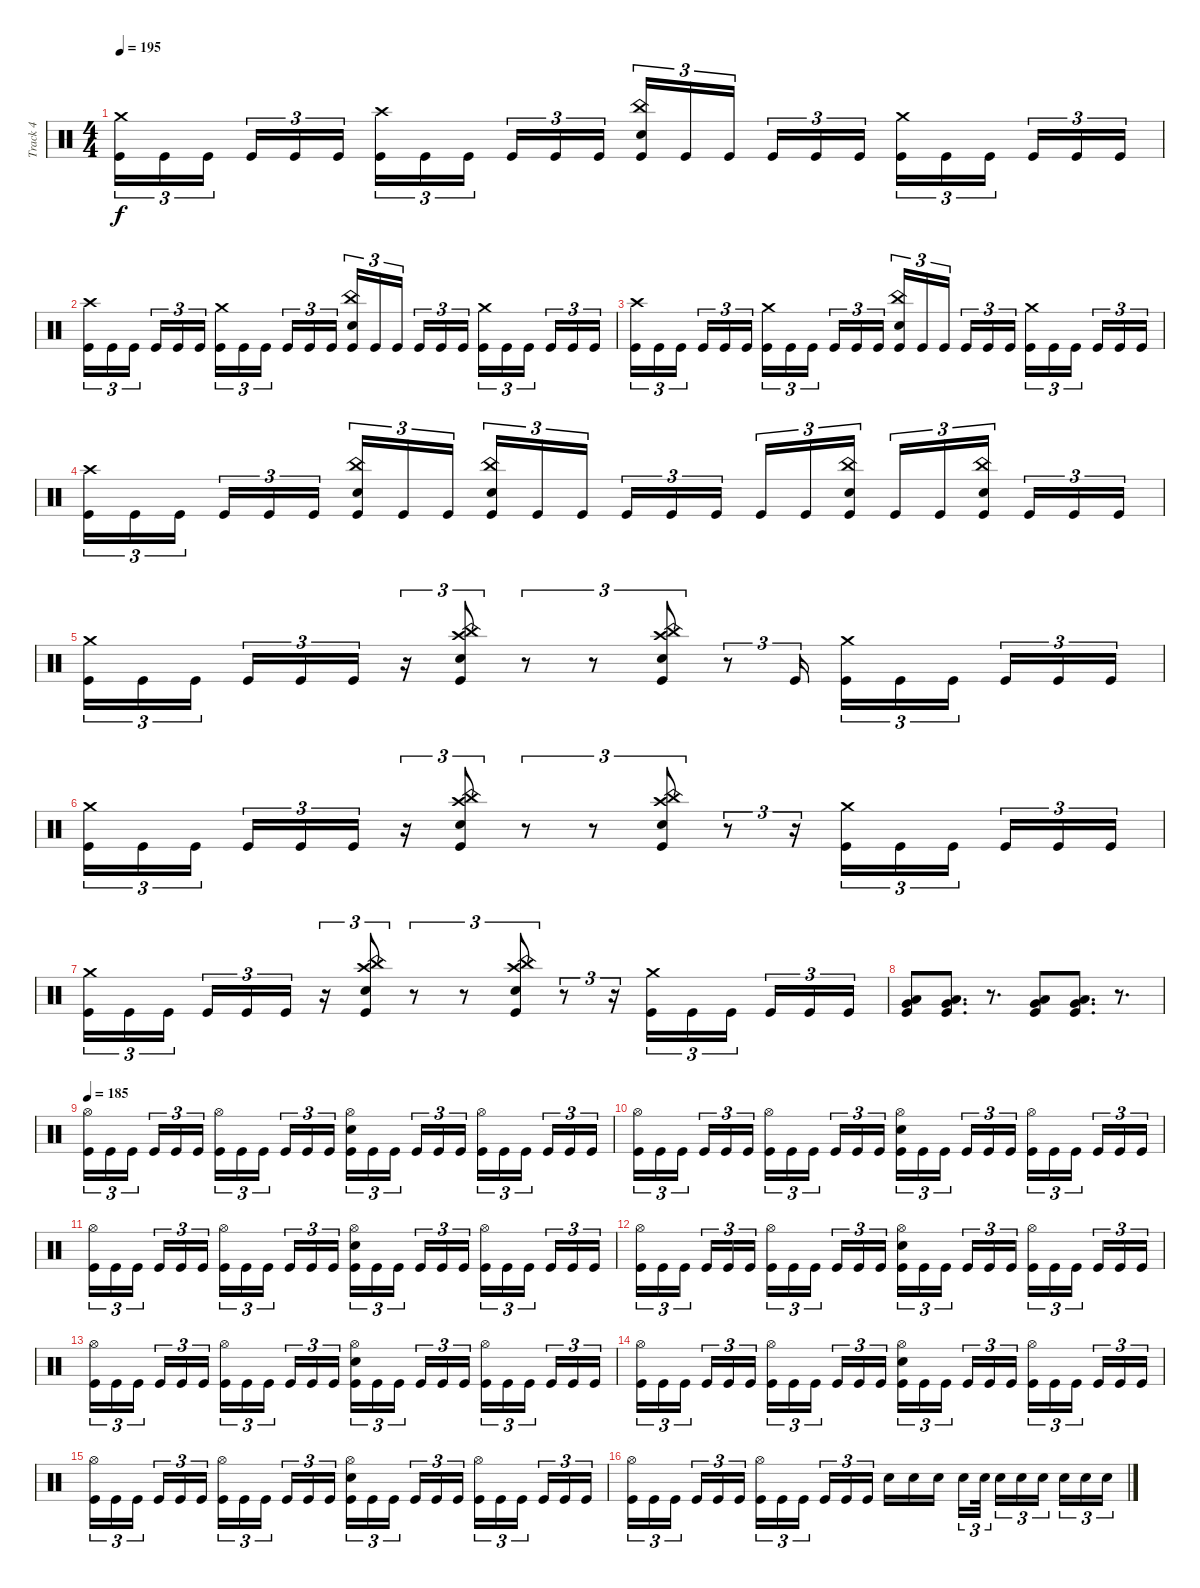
\track ("Track 4" "Track 4") {instrument percussion}
\staff {score}
\articulation defaults
\ts (4 4)
\tempo 195
\clef neutral
\ks c
("Crash medium (hit)" "Kick (hit)").16{tu (3 2) dy f} "Kick (hit)".16{tu (3 2)} "Kick (hit)".16{tu (3 2)} "Kick (hit)".16{tu (3 2)} "Kick (hit)".16{tu (3 2)} "Kick (hit)".16{tu (3 2)} ("Crash high (hit)" "Kick (hit)").16{tu (3 2)} "Kick (hit)".16{tu (3 2)} "Kick (hit)".16{tu (3 2)} "Kick (hit)".16{tu (3 2)} "Kick (hit)".16{tu (3 2)} "Kick (hit)".16{tu (3 2)} ("China (hit)" "Electric Snare (hit)" "Kick (hit)").16{tu (3 2)} "Kick (hit)".16{tu (3 2)} "Kick (hit)".16{tu (3 2)} "Kick (hit)".16{tu (3 2)} "Kick (hit)".16{tu (3 2)} "Kick (hit)".16{tu (3 2)} ("Crash medium (hit)" "Kick (hit)").16{tu (3 2)} "Kick (hit)".16{tu (3 2)} "Kick (hit)".16{tu (3 2)} "Kick (hit)".16{tu (3 2)} "Kick (hit)".16{tu (3 2)} "Kick (hit)".16{tu (3 2)} |
("Crash high (hit)" "Kick (hit)").16{tu (3 2)} "Kick (hit)".16{tu (3 2)} "Kick (hit)".16{tu (3 2)} "Kick (hit)".16{tu (3 2)} "Kick (hit)".16{tu (3 2)} "Kick (hit)".16{tu (3 2)} ("Crash medium (hit)" "Kick (hit)").16{tu (3 2)} "Kick (hit)".16{tu (3 2)} "Kick (hit)".16{tu (3 2)} "Kick (hit)".16{tu (3 2)} "Kick (hit)".16{tu (3 2)} "Kick (hit)".16{tu (3 2)} ("China (hit)" "Electric Snare (hit)" "Kick (hit)").16{tu (3 2)} "Kick (hit)".16{tu (3 2)} "Kick (hit)".16{tu (3 2)} "Kick (hit)".16{tu (3 2)} "Kick (hit)".16{tu (3 2)} "Kick (hit)".16{tu (3 2)} ("Crash medium (hit)" "Kick (hit)").16{tu (3 2)} "Kick (hit)".16{tu (3 2)} "Kick (hit)".16{tu (3 2)} "Kick (hit)".16{tu (3 2)} "Kick (hit)".16{tu (3 2)} "Kick (hit)".16{tu (3 2)} |
("Crash high (hit)" "Kick (hit)").16{tu (3 2)} "Kick (hit)".16{tu (3 2)} "Kick (hit)".16{tu (3 2)} "Kick (hit)".16{tu (3 2)} "Kick (hit)".16{tu (3 2)} "Kick (hit)".16{tu (3 2)} ("Crash medium (hit)" "Kick (hit)").16{tu (3 2)} "Kick (hit)".16{tu (3 2)} "Kick (hit)".16{tu (3 2)} "Kick (hit)".16{tu (3 2)} "Kick (hit)".16{tu (3 2)} "Kick (hit)".16{tu (3 2)} ("China (hit)" "Electric Snare (hit)" "Kick (hit)").16{tu (3 2)} "Kick (hit)".16{tu (3 2)} "Kick (hit)".16{tu (3 2)} "Kick (hit)".16{tu (3 2)} "Kick (hit)".16{tu (3 2)} "Kick (hit)".16{tu (3 2)} ("Crash medium (hit)" "Kick (hit)").16{tu (3 2)} "Kick (hit)".16{tu (3 2)} "Kick (hit)".16{tu (3 2)} "Kick (hit)".16{tu (3 2)} "Kick (hit)".16{tu (3 2)} "Kick (hit)".16{tu (3 2)} |
("Crash high (hit)" "Kick (hit)").16{tu (3 2)} "Kick (hit)".16{tu (3 2)} "Kick (hit)".16{tu (3 2)} "Kick (hit)".16{tu (3 2)} "Kick (hit)".16{tu (3 2)} "Kick (hit)".16{tu (3 2)} ("China (hit)" "Electric Snare (hit)" "Kick (hit)").16{tu (3 2)} "Kick (hit)".16{tu (3 2)} "Kick (hit)".16{tu (3 2)} ("China (hit)" "Electric Snare (hit)" "Kick (hit)").16{tu (3 2)} "Kick (hit)".16{tu (3 2)} "Kick (hit)".16{tu (3 2)} "Kick (hit)".16{tu (3 2)} "Kick (hit)".16{tu (3 2)} "Kick (hit)".16{tu (3 2)} "Kick (hit)".16{tu (3 2)} "Kick (hit)".16{tu (3 2)} ("China (hit)" "Electric Snare (hit)" "Kick (hit)").16{tu (3 2)} "Kick (hit)".16{tu (3 2)} "Kick (hit)".16{tu (3 2)} ("China (hit)" "Electric Snare (hit)" "Kick (hit)").16{tu (3 2)} "Kick (hit)".16{tu (3 2)} "Kick (hit)".16{tu (3 2)} "Kick (hit)".16{tu (3 2)} |
("Crash medium (hit)" "Kick (hit)").16{tu (3 2)} "Kick (hit)".16{tu (3 2)} "Kick (hit)".16{tu (3 2)} "Kick (hit)".16{tu (3 2)} "Kick (hit)".16{tu (3 2)} "Kick (hit)".16{tu (3 2)} r.16{tu (3 2)} ("Crash high (hit)" "China (hit)" "Electric Snare (hit)" "Kick (hit)").8{tu (3 2)} r.8{tu (3 2)} r.8{tu (3 2)} ("Crash high (hit)" "China (hit)" "Electric Snare (hit)" "Kick (hit)").8{tu (3 2)} r.8{tu (3 2)} "Kick (hit)".16{tu (3 2)} ("Crash medium (hit)" "Kick (hit)").16{tu (3 2)} "Kick (hit)".16{tu (3 2)} "Kick (hit)".16{tu (3 2)} "Kick (hit)".16{tu (3 2)} "Kick (hit)".16{tu (3 2)} "Kick (hit)".16{tu (3 2)} |
("Crash medium (hit)" "Kick (hit)").16{tu (3 2)} "Kick (hit)".16{tu (3 2)} "Kick (hit)".16{tu (3 2)} "Kick (hit)".16{tu (3 2)} "Kick (hit)".16{tu (3 2)} "Kick (hit)".16{tu (3 2)} r.16{tu (3 2)} ("Crash high (hit)" "China (hit)" "Electric Snare (hit)" "Kick (hit)").8{tu (3 2)} r.8{tu (3 2)} r.8{tu (3 2)} ("Crash high (hit)" "China (hit)" "Electric Snare (hit)" "Kick (hit)").8{tu (3 2)} r.8{tu (3 2)} r.16{tu (3 2)} ("Crash medium (hit)" "Kick (hit)").16{tu (3 2)} "Kick (hit)".16{tu (3 2)} "Kick (hit)".16{tu (3 2)} "Kick (hit)".16{tu (3 2)} "Kick (hit)".16{tu (3 2)} "Kick (hit)".16{tu (3 2)} |
("Crash medium (hit)" "Kick (hit)").16{tu (3 2)} "Kick (hit)".16{tu (3 2)} "Kick (hit)".16{tu (3 2)} "Kick (hit)".16{tu (3 2)} "Kick (hit)".16{tu (3 2)} "Kick (hit)".16{tu (3 2)} r.16{tu (3 2)} ("Crash high (hit)" "China (hit)" "Electric Snare (hit)" "Kick (hit)").8{tu (3 2)} r.8{tu (3 2)} r.8{tu (3 2)} ("Crash high (hit)" "China (hit)" "Electric Snare (hit)" "Kick (hit)").8{tu (3 2)} r.8{tu (3 2)} r.16{tu (3 2)} ("Crash medium (hit)" "Kick (hit)").16{tu (3 2)} "Kick (hit)".16{tu (3 2)} "Kick (hit)".16{tu (3 2)} "Kick (hit)".16{tu (3 2)} "Kick (hit)".16{tu (3 2)} "Kick (hit)".16{tu (3 2)} |
("Very Low Tom (hit)" "Low Floor Tom (hit)" "Kick (hit)").8 ("Very Low Tom (hit)" "Low Floor Tom (hit)" "Kick (hit)").8{d} r.8{d} ("Very Low Tom (hit)" "Low Floor Tom (hit)" "Kick (hit)").8 ("Very Low Tom (hit)" "Low Floor Tom (hit)" "Kick (hit)").8{d} r.8{d} |
\tempo 185
("Hi-Hat (open)" "Kick (hit)").16{tu (3 2)} "Kick (hit)".16{tu (3 2)} "Kick (hit)".16{tu (3 2)} "Kick (hit)".16{tu (3 2)} "Kick (hit)".16{tu (3 2)} "Kick (hit)".16{tu (3 2)} ("Hi-Hat (open)" "Kick (hit)").16{tu (3 2)} "Kick (hit)".16{tu (3 2)} "Kick (hit)".16{tu (3 2)} "Kick (hit)".16{tu (3 2)} "Kick (hit)".16{tu (3 2)} "Kick (hit)".16{tu (3 2)} ("Hi-Hat (open)" "Electric Snare (hit)" "Kick (hit)").16{tu (3 2)} "Kick (hit)".16{tu (3 2)} "Kick (hit)".16{tu (3 2)} "Kick (hit)".16{tu (3 2)} "Kick (hit)".16{tu (3 2)} "Kick (hit)".16{tu (3 2)} ("Hi-Hat (open)" "Kick (hit)").16{tu (3 2)} "Kick (hit)".16{tu (3 2)} "Kick (hit)".16{tu (3 2)} "Kick (hit)".16{tu (3 2)} "Kick (hit)".16{tu (3 2)} "Kick (hit)".16{tu (3 2)} |
("Hi-Hat (open)" "Kick (hit)").16{tu (3 2)} "Kick (hit)".16{tu (3 2)} "Kick (hit)".16{tu (3 2)} "Kick (hit)".16{tu (3 2)} "Kick (hit)".16{tu (3 2)} "Kick (hit)".16{tu (3 2)} ("Hi-Hat (open)" "Kick (hit)").16{tu (3 2)} "Kick (hit)".16{tu (3 2)} "Kick (hit)".16{tu (3 2)} "Kick (hit)".16{tu (3 2)} "Kick (hit)".16{tu (3 2)} "Kick (hit)".16{tu (3 2)} ("Hi-Hat (open)" "Electric Snare (hit)" "Kick (hit)").16{tu (3 2)} "Kick (hit)".16{tu (3 2)} "Kick (hit)".16{tu (3 2)} "Kick (hit)".16{tu (3 2)} "Kick (hit)".16{tu (3 2)} "Kick (hit)".16{tu (3 2)} ("Hi-Hat (open)" "Kick (hit)").16{tu (3 2)} "Kick (hit)".16{tu (3 2)} "Kick (hit)".16{tu (3 2)} "Kick (hit)".16{tu (3 2)} "Kick (hit)".16{tu (3 2)} "Kick (hit)".16{tu (3 2)} |
("Hi-Hat (open)" "Kick (hit)").16{tu (3 2)} "Kick (hit)".16{tu (3 2)} "Kick (hit)".16{tu (3 2)} "Kick (hit)".16{tu (3 2)} "Kick (hit)".16{tu (3 2)} "Kick (hit)".16{tu (3 2)} ("Hi-Hat (open)" "Kick (hit)").16{tu (3 2)} "Kick (hit)".16{tu (3 2)} "Kick (hit)".16{tu (3 2)} "Kick (hit)".16{tu (3 2)} "Kick (hit)".16{tu (3 2)} "Kick (hit)".16{tu (3 2)} ("Hi-Hat (open)" "Electric Snare (hit)" "Kick (hit)").16{tu (3 2)} "Kick (hit)".16{tu (3 2)} "Kick (hit)".16{tu (3 2)} "Kick (hit)".16{tu (3 2)} "Kick (hit)".16{tu (3 2)} "Kick (hit)".16{tu (3 2)} ("Hi-Hat (open)" "Kick (hit)").16{tu (3 2)} "Kick (hit)".16{tu (3 2)} "Kick (hit)".16{tu (3 2)} "Kick (hit)".16{tu (3 2)} "Kick (hit)".16{tu (3 2)} "Kick (hit)".16{tu (3 2)} |
("Hi-Hat (open)" "Kick (hit)").16{tu (3 2)} "Kick (hit)".16{tu (3 2)} "Kick (hit)".16{tu (3 2)} "Kick (hit)".16{tu (3 2)} "Kick (hit)".16{tu (3 2)} "Kick (hit)".16{tu (3 2)} ("Hi-Hat (open)" "Kick (hit)").16{tu (3 2)} "Kick (hit)".16{tu (3 2)} "Kick (hit)".16{tu (3 2)} "Kick (hit)".16{tu (3 2)} "Kick (hit)".16{tu (3 2)} "Kick (hit)".16{tu (3 2)} ("Hi-Hat (open)" "Electric Snare (hit)" "Kick (hit)").16{tu (3 2)} "Kick (hit)".16{tu (3 2)} "Kick (hit)".16{tu (3 2)} "Kick (hit)".16{tu (3 2)} "Kick (hit)".16{tu (3 2)} "Kick (hit)".16{tu (3 2)} ("Hi-Hat (open)" "Kick (hit)").16{tu (3 2)} "Kick (hit)".16{tu (3 2)} "Kick (hit)".16{tu (3 2)} "Kick (hit)".16{tu (3 2)} "Kick (hit)".16{tu (3 2)} "Kick (hit)".16{tu (3 2)} |
("Hi-Hat (open)" "Kick (hit)").16{tu (3 2)} "Kick (hit)".16{tu (3 2)} "Kick (hit)".16{tu (3 2)} "Kick (hit)".16{tu (3 2)} "Kick (hit)".16{tu (3 2)} "Kick (hit)".16{tu (3 2)} ("Hi-Hat (open)" "Kick (hit)").16{tu (3 2)} "Kick (hit)".16{tu (3 2)} "Kick (hit)".16{tu (3 2)} "Kick (hit)".16{tu (3 2)} "Kick (hit)".16{tu (3 2)} "Kick (hit)".16{tu (3 2)} ("Hi-Hat (open)" "Electric Snare (hit)" "Kick (hit)").16{tu (3 2)} "Kick (hit)".16{tu (3 2)} "Kick (hit)".16{tu (3 2)} "Kick (hit)".16{tu (3 2)} "Kick (hit)".16{tu (3 2)} "Kick (hit)".16{tu (3 2)} ("Hi-Hat (open)" "Kick (hit)").16{tu (3 2)} "Kick (hit)".16{tu (3 2)} "Kick (hit)".16{tu (3 2)} "Kick (hit)".16{tu (3 2)} "Kick (hit)".16{tu (3 2)} "Kick (hit)".16{tu (3 2)} |
("Hi-Hat (open)" "Kick (hit)").16{tu (3 2)} "Kick (hit)".16{tu (3 2)} "Kick (hit)".16{tu (3 2)} "Kick (hit)".16{tu (3 2)} "Kick (hit)".16{tu (3 2)} "Kick (hit)".16{tu (3 2)} ("Hi-Hat (open)" "Kick (hit)").16{tu (3 2)} "Kick (hit)".16{tu (3 2)} "Kick (hit)".16{tu (3 2)} "Kick (hit)".16{tu (3 2)} "Kick (hit)".16{tu (3 2)} "Kick (hit)".16{tu (3 2)} ("Hi-Hat (open)" "Electric Snare (hit)" "Kick (hit)").16{tu (3 2)} "Kick (hit)".16{tu (3 2)} "Kick (hit)".16{tu (3 2)} "Kick (hit)".16{tu (3 2)} "Kick (hit)".16{tu (3 2)} "Kick (hit)".16{tu (3 2)} ("Hi-Hat (open)" "Kick (hit)").16{tu (3 2)} "Kick (hit)".16{tu (3 2)} "Kick (hit)".16{tu (3 2)} "Kick (hit)".16{tu (3 2)} "Kick (hit)".16{tu (3 2)} "Kick (hit)".16{tu (3 2)} |
("Hi-Hat (open)" "Kick (hit)").16{tu (3 2)} "Kick (hit)".16{tu (3 2)} "Kick (hit)".16{tu (3 2)} "Kick (hit)".16{tu (3 2)} "Kick (hit)".16{tu (3 2)} "Kick (hit)".16{tu (3 2)} ("Hi-Hat (open)" "Kick (hit)").16{tu (3 2)} "Kick (hit)".16{tu (3 2)} "Kick (hit)".16{tu (3 2)} "Kick (hit)".16{tu (3 2)} "Kick (hit)".16{tu (3 2)} "Kick (hit)".16{tu (3 2)} ("Hi-Hat (open)" "Electric Snare (hit)" "Kick (hit)").16{tu (3 2)} "Kick (hit)".16{tu (3 2)} "Kick (hit)".16{tu (3 2)} "Kick (hit)".16{tu (3 2)} "Kick (hit)".16{tu (3 2)} "Kick (hit)".16{tu (3 2)} ("Hi-Hat (open)" "Kick (hit)").16{tu (3 2)} "Kick (hit)".16{tu (3 2)} "Kick (hit)".16{tu (3 2)} "Kick (hit)".16{tu (3 2)} "Kick (hit)".16{tu (3 2)} "Kick (hit)".16{tu (3 2)} |
("Hi-Hat (open)" "Kick (hit)").16{tu (3 2)} "Kick (hit)".16{tu (3 2)} "Kick (hit)".16{tu (3 2)} "Kick (hit)".16{tu (3 2)} "Kick (hit)".16{tu (3 2)} "Kick (hit)".16{tu (3 2)} ("Hi-Hat (open)" "Kick (hit)").16{tu (3 2)} "Kick (hit)".16{tu (3 2)} "Kick (hit)".16{tu (3 2)} "Kick (hit)".16{tu (3 2)} "Kick (hit)".16{tu (3 2)} "Kick (hit)".16{tu (3 2)} "Electric Snare (hit)".16 "Electric Snare (hit)".16 "Electric Snare (hit)".16 "Electric Snare (hit)".16{tu (3 2)} "Electric Snare (hit)".32{tu (3 2)} "Electric Snare (hit)".16{tu (3 2)} "Electric Snare (hit)".16{tu (3 2)} "Electric Snare (hit)".16{tu (3 2)} "Electric Snare (hit)".16{tu (3 2)} "Electric Snare (hit)".16{tu (3 2)} "Electric Snare (hit)".16{tu (3 2)}
